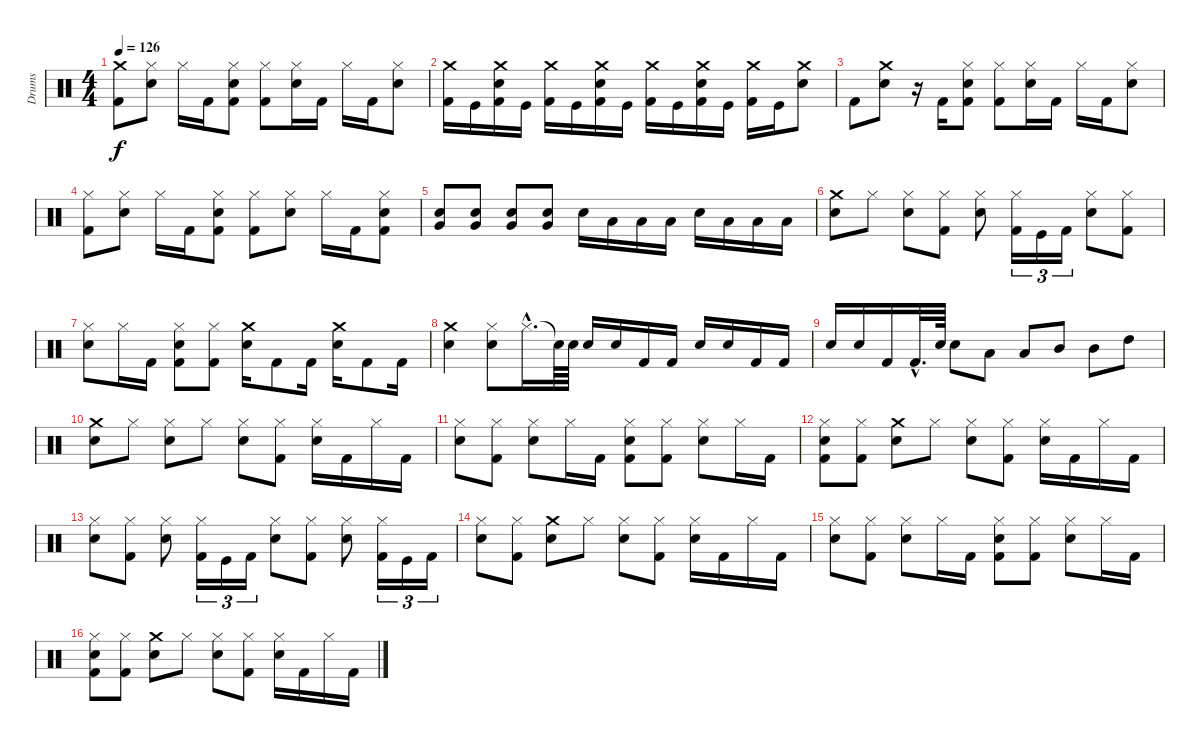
\track ("Drums" "Drums") {instrument percussion}
\staff {score}
\articulation defaults
\ts (4 4)
\tempo 126
\clef neutral
\ks c
("Kick (hit) 2" "Crash medium (hit)").8{dy f} ("Snare (hit) 2" "Hi-Hat (closed)").8 "Hi-Hat (closed)".16 "Kick (hit) 2".16 ("Kick (hit) 2" "Snare (hit) 2" "Hi-Hat (closed)").8 ("Kick (hit) 2" "Hi-Hat (closed)").8 ("Snare (hit) 2" "Hi-Hat (closed)").16 "Kick (hit) 2".16 "Hi-Hat (closed)".16 "Kick (hit) 2".16 ("Snare (hit) 2" "Hi-Hat (closed)").8 |
("Crash medium (hit)" "Kick (hit) 2").16 "Kick (hit)".16 ("Snare (hit) 2" "Crash medium (hit)" "Kick (hit) 2").16 "Kick (hit)".16 ("Crash medium (hit)" "Kick (hit) 2").16 "Kick (hit)".16 ("Snare (hit) 2" "Crash medium (hit)" "Kick (hit) 2").16 "Kick (hit)".16 ("Crash medium (hit)" "Kick (hit) 2").16 "Kick (hit)".16 ("Snare (hit) 2" "Crash medium (hit)" "Kick (hit) 2").16 "Kick (hit)".16 ("Crash medium (hit)" "Kick (hit) 2").16 "Kick (hit)".16 ("Snare (hit) 2" "Crash medium (hit)").8 |
"Kick (hit) 2".8 ("Snare (hit) 2" "Crash medium (hit)").8 r.16 "Kick (hit) 2".16 ("Kick (hit) 2" "Hi-Hat (closed)" "Snare (hit) 2").8 ("Kick (hit) 2" "Hi-Hat (closed)").8 ("Snare (hit) 2" "Hi-Hat (closed)").16 "Kick (hit) 2".16 "Hi-Hat (closed)".16 "Kick (hit) 2".16 ("Snare (hit) 2" "Hi-Hat (closed)").8 |
("Hi-Hat (closed)" "Kick (hit) 2").8 ("Snare (hit) 2" "Hi-Hat (closed)").8 "Hi-Hat (closed)".16 "Kick (hit) 2".16 ("Snare (hit) 2" "Hi-Hat (closed)" "Kick (hit) 2").8 ("Hi-Hat (closed)" "Kick (hit) 2").8 ("Snare (hit) 2" "Hi-Hat (closed)").8 "Hi-Hat (closed)".16 "Kick (hit) 2".16 ("Snare (hit) 2" "Hi-Hat (closed)" "Kick (hit) 2").8 |
("Very Low Tom (hit)" "Snare (hit) 2").8 ("Very Low Tom (hit)" "Snare (hit) 2").8 ("Very Low Tom (hit)" "Snare (hit) 2").8 ("Very Low Tom (hit)" "Snare (hit) 2").8 "Snare (hit) 2".16 "Low Tom (hit)".16 "Low Tom (hit)".16 "Low Tom (hit)".16 "Snare (hit) 2".16 "Low Tom (hit)".16 "Low Tom (hit)".16 "Low Tom (hit)".16 |
("Snare (hit) 2" "Crash medium (hit)").8 "Hi-Hat (closed)".8 ("Snare (hit) 2" "Hi-Hat (closed)").8 ("Kick (hit) 2" "Hi-Hat (closed)").8 ("Hi-Hat (closed)" "Snare (hit) 2").8 ("Hi-Hat (closed)" "Kick (hit) 2").16{tu (3 2)} "Kick (hit)".16{tu (3 2)} "Kick (hit) 2".16{tu (3 2)} ("Hi-Hat (closed)" "Snare (hit) 2").8 ("Kick (hit) 2" "Hi-Hat (closed)").8 |
("Snare (hit) 2" "Hi-Hat (closed)").8 "Hi-Hat (closed)".16 "Kick (hit) 2".16 ("Kick (hit) 2" "Snare (hit) 2" "Hi-Hat (closed)").8 ("Kick (hit) 2" "Hi-Hat (closed)").8 ("Snare (hit) 2" "Crash medium (hit)").16 "Kick (hit) 2".8 "Kick (hit) 2".16 ("Snare (hit) 2" "Crash medium (hit)").16 "Kick (hit) 2".8 "Kick (hit) 2".16 |
("Snare (hit) 2" "Crash medium (hit)").4 ("Snare (hit) 2" "Hi-Hat (closed)").8 "Hi-Hat (closed)"{hac}.16{d} "Snare (hit)"{t}.64 "Snare (hit) 2".64 "Snare (hit) 2".16 "Snare (hit) 2".16 "Kick (hit) 2".16 "Kick (hit) 2".16 "Snare (hit) 2".16 "Snare (hit) 2".16 "Kick (hit) 2".16 "Kick (hit) 2".16 |
"Snare (hit) 2".16 "Snare (hit) 2".16 "Kick (hit) 2".16 "Kick (hit) 2"{hac}.32{d} "Snare (hit) 2".64 "Snare (hit) 2".8 "Low Tom (hit)".8 "Low Tom (hit)".8 "Mid Tom (hit)".8 "Mid Tom (hit)".8 "High Tom (hit)".8 |
("Crash medium (hit)" "Snare (hit) 2").8 "Hi-Hat (closed)".8 ("Snare (hit) 2" "Hi-Hat (closed)").8 "Hi-Hat (closed)".8 ("Snare (hit) 2" "Hi-Hat (closed)").8 ("Kick (hit) 2" "Hi-Hat (closed)").8 ("Snare (hit) 2" "Hi-Hat (closed)").16 "Kick (hit) 2".16 "Hi-Hat (closed)".16 "Kick (hit) 2".16 |
("Hi-Hat (closed)" "Snare (hit) 2").8 ("Kick (hit) 2" "Hi-Hat (closed)").8 ("Snare (hit) 2" "Hi-Hat (closed)").8 "Hi-Hat (closed)".16 "Kick (hit) 2".16 ("Kick (hit) 2" "Snare (hit) 2" "Hi-Hat (closed)").8 ("Kick (hit) 2" "Hi-Hat (closed)").8 ("Snare (hit) 2" "Hi-Hat (closed)").8 "Hi-Hat (closed)".16 "Kick (hit) 2".16 |
("Hi-Hat (closed)" "Snare (hit) 2" "Kick (hit) 2").8 ("Hi-Hat (closed)" "Kick (hit) 2").8 ("Crash medium (hit)" "Snare (hit) 2").8 "Hi-Hat (closed)".8 ("Snare (hit) 2" "Hi-Hat (closed)").8 ("Hi-Hat (closed)" "Kick (hit) 2").8 ("Snare (hit) 2" "Hi-Hat (closed)").16 "Kick (hit) 2".16 "Hi-Hat (closed)".16 "Kick (hit) 2".16 |
("Hi-Hat (closed)" "Snare (hit) 2").8 ("Kick (hit) 2" "Hi-Hat (closed)").8 ("Snare (hit) 2" "Hi-Hat (closed)").8 ("Hi-Hat (closed)" "Kick (hit) 2").16{tu (3 2)} "Kick (hit)".16{tu (3 2)} "Kick (hit) 2".16{tu (3 2)} ("Snare (hit) 2" "Hi-Hat (closed)").8 ("Kick (hit) 2" "Hi-Hat (closed)").8 ("Snare (hit) 2" "Hi-Hat (closed)").8 ("Hi-Hat (closed)" "Kick (hit) 2").16{tu (3 2)} "Kick (hit)".16{tu (3 2)} "Kick (hit) 2".16{tu (3 2)} |
("Hi-Hat (closed)" "Snare (hit) 2").8 ("Kick (hit) 2" "Hi-Hat (closed)").8 ("Crash medium (hit)" "Snare (hit) 2").8 "Hi-Hat (closed)".8 ("Snare (hit) 2" "Hi-Hat (closed)").8 ("Hi-Hat (closed)" "Kick (hit) 2").8 ("Snare (hit) 2" "Hi-Hat (closed)").16 "Kick (hit) 2".16 "Hi-Hat (closed)".16 "Kick (hit) 2".16 |
("Hi-Hat (closed)" "Snare (hit) 2").8 ("Kick (hit) 2" "Hi-Hat (closed)").8 ("Snare (hit) 2" "Hi-Hat (closed)").8 "Hi-Hat (closed)".16 "Kick (hit) 2".16 ("Kick (hit) 2" "Snare (hit) 2" "Hi-Hat (closed)").8 ("Kick (hit) 2" "Hi-Hat (closed)").8 ("Snare (hit) 2" "Hi-Hat (closed)").8 "Hi-Hat (closed)".16 "Kick (hit) 2".16 |
("Hi-Hat (closed)" "Snare (hit) 2" "Kick (hit) 2").8 ("Hi-Hat (closed)" "Kick (hit) 2").8 ("Crash medium (hit)" "Snare (hit) 2").8 "Hi-Hat (closed)".8 ("Snare (hit) 2" "Hi-Hat (closed)").8 ("Hi-Hat (closed)" "Kick (hit) 2").8 ("Snare (hit) 2" "Hi-Hat (closed)").16 "Kick (hit) 2".16 "Hi-Hat (closed)".16 "Kick (hit) 2".16
